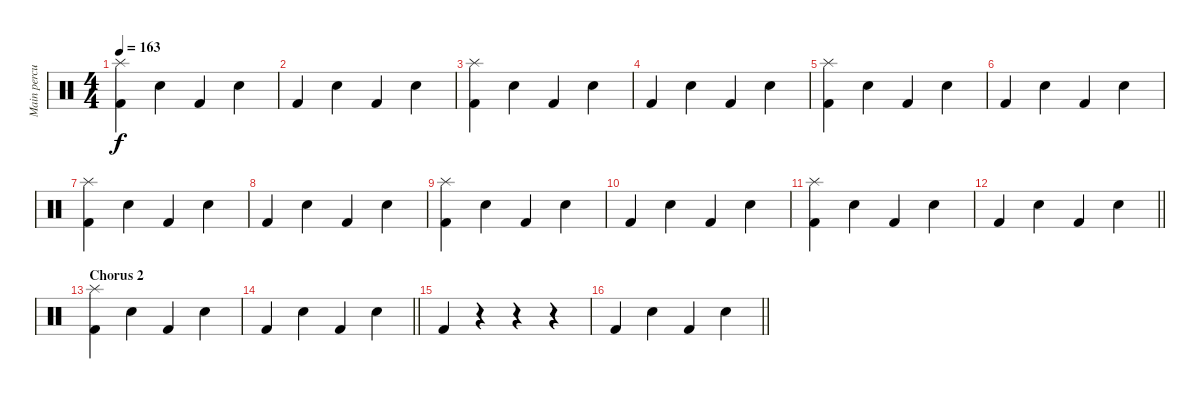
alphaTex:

\track ("Main percussion" "Main percu") {instrument percussion}
\staff {score}
\articulation defaults
\ts (4 4)
\tempo 163
\clef neutral
\ks c
("Kick (hit) 2" "Splash (hit)").4{dy f} "Electric Snare (hit)".4 "Kick (hit) 2".4 "Electric Snare (hit)".4 |
"Kick (hit) 2".4 "Electric Snare (hit)".4 "Kick (hit) 2".4 "Electric Snare (hit)".4 |
("Kick (hit) 2" "Splash (hit)").4 "Electric Snare (hit)".4 "Kick (hit) 2".4 "Electric Snare (hit)".4 |
"Kick (hit) 2".4 "Electric Snare (hit)".4 "Kick (hit) 2".4 "Electric Snare (hit)".4 |
("Kick (hit) 2" "Splash (hit)").4 "Electric Snare (hit)".4 "Kick (hit) 2".4 "Electric Snare (hit)".4 |
"Kick (hit) 2".4 "Electric Snare (hit)".4 "Kick (hit) 2".4 "Electric Snare (hit)".4 |
("Kick (hit) 2" "Splash (hit)").4 "Electric Snare (hit)".4 "Kick (hit) 2".4 "Electric Snare (hit)".4 |
"Kick (hit) 2".4 "Electric Snare (hit)".4 "Kick (hit) 2".4 "Electric Snare (hit)".4 |
("Kick (hit) 2" "Splash (hit)").4 "Electric Snare (hit)".4 "Kick (hit) 2".4 "Electric Snare (hit)".4 |
"Kick (hit) 2".4 "Electric Snare (hit)".4 "Kick (hit) 2".4 "Electric Snare (hit)".4 |
("Kick (hit) 2" "Splash (hit)").4 "Electric Snare (hit)".4 "Kick (hit) 2".4 "Electric Snare (hit)".4 |
\barLineRight lightlight "Kick (hit) 2".4 "Electric Snare (hit)".4 "Kick (hit) 2".4 "Electric Snare (hit)".4
|
\section ("" "Chorus 2")
("Kick (hit) 2" "Splash (hit)").4 "Electric Snare (hit)".4 "Kick (hit) 2".4 "Electric Snare (hit)".4 |
\barLineRight lightlight "Kick (hit) 2".4 "Electric Snare (hit)".4 "Kick (hit) 2".4 "Electric Snare (hit)".4
|
"Kick (hit) 2".4 r.4 r.4 r.4 |
\barLineRight lightlight "Kick (hit) 2".4 "Electric Snare (hit)".4 "Kick (hit) 2".4 "Electric Snare (hit)".4
